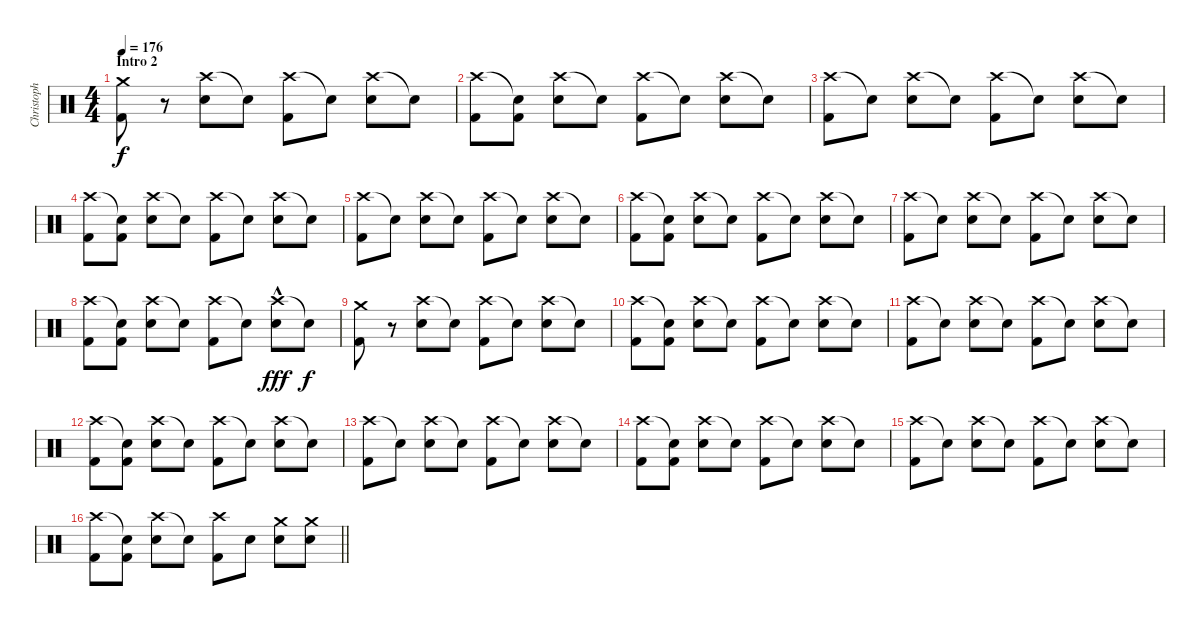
\track ("Christoph" "Christoph") {instrument percussion}
\staff {score}
\articulation defaults
\ts (4 4)
\section ("" "Intro 2")
\tempo 176
\clef neutral
\ks c
("Crash medium (hit)" "Kick (hit) 2").8{dy f} r.8 ("Crash high (hit)" "Snare (hit) 2").8 "Snare (hit)"{t}.8 ("Crash high (hit)" "Kick (hit) 2").8 "Snare (hit)"{t}.8 ("Crash high (hit)" "Snare (hit) 2").8 "Snare (hit)"{t}.8 |
("Crash high (hit)" "Kick (hit) 2").8 ("Snare (hit)"{t} "Kick (hit) 2").8 ("Crash high (hit)" "Snare (hit) 2").8 "Snare (hit)"{t}.8 ("Crash high (hit)" "Kick (hit) 2").8 "Snare (hit)"{t}.8 ("Crash high (hit)" "Snare (hit) 2").8 "Snare (hit)"{t}.8 |
("Crash high (hit)" "Kick (hit) 2").8 "Snare (hit)"{t}.8 ("Crash high (hit)" "Snare (hit) 2").8 "Snare (hit)"{t}.8 ("Crash high (hit)" "Kick (hit) 2").8 "Snare (hit)"{t}.8 ("Crash high (hit)" "Snare (hit) 2").8 "Snare (hit)"{t}.8 |
("Crash high (hit)" "Kick (hit) 2").8 ("Snare (hit)"{t} "Kick (hit) 2").8 ("Crash high (hit)" "Snare (hit) 2").8 "Snare (hit)"{t}.8 ("Crash high (hit)" "Kick (hit) 2").8 "Snare (hit)"{t}.8 ("Crash high (hit)" "Snare (hit) 2").8 "Snare (hit)"{t}.8 |
("Crash high (hit)" "Kick (hit) 2").8 "Snare (hit)"{t}.8 ("Crash high (hit)" "Snare (hit) 2").8 "Snare (hit)"{t}.8 ("Crash high (hit)" "Kick (hit) 2").8 "Snare (hit)"{t}.8 ("Crash high (hit)" "Snare (hit) 2").8 "Snare (hit)"{t}.8 |
("Crash high (hit)" "Kick (hit) 2").8 ("Snare (hit)"{t} "Kick (hit) 2").8 ("Crash high (hit)" "Snare (hit) 2").8 "Snare (hit)"{t}.8 ("Crash high (hit)" "Kick (hit) 2").8 "Snare (hit)"{t}.8 ("Crash high (hit)" "Snare (hit) 2").8 "Snare (hit)"{t}.8 |
("Crash high (hit)" "Kick (hit) 2").8 "Snare (hit)"{t}.8 ("Crash high (hit)" "Snare (hit) 2").8 "Snare (hit)"{t}.8 ("Crash high (hit)" "Kick (hit) 2").8 "Snare (hit)"{t}.8 ("Crash high (hit)" "Snare (hit) 2").8 "Snare (hit)"{t}.8 |
("Crash high (hit)" "Kick (hit) 2").8 ("Snare (hit)"{t} "Kick (hit) 2").8 ("Crash high (hit)" "Snare (hit) 2").8 "Snare (hit)"{t}.8 ("Crash high (hit)" "Kick (hit) 2").8 "Snare (hit)"{t}.8 ("Crash high (hit)"{hac} "Snare (hit) 2").8{dy fff} "Snare (hit)"{t}.8{dy f} |
("Crash medium (hit)" "Kick (hit) 2").8 r.8 ("Crash high (hit)" "Snare (hit) 2").8 "Snare (hit)"{t}.8 ("Crash high (hit)" "Kick (hit) 2").8 "Snare (hit)"{t}.8 ("Crash high (hit)" "Snare (hit) 2").8 "Snare (hit)"{t}.8 |
("Crash high (hit)" "Kick (hit) 2").8 ("Snare (hit)"{t} "Kick (hit) 2").8 ("Crash high (hit)" "Snare (hit) 2").8 "Snare (hit)"{t}.8 ("Crash high (hit)" "Kick (hit) 2").8 "Snare (hit)"{t}.8 ("Crash high (hit)" "Snare (hit) 2").8 "Snare (hit)"{t}.8 |
("Crash high (hit)" "Kick (hit) 2").8 "Snare (hit)"{t}.8 ("Crash high (hit)" "Snare (hit) 2").8 "Snare (hit)"{t}.8 ("Crash high (hit)" "Kick (hit) 2").8 "Snare (hit)"{t}.8 ("Crash high (hit)" "Snare (hit) 2").8 "Snare (hit)"{t}.8 |
("Crash high (hit)" "Kick (hit) 2").8 ("Snare (hit)"{t} "Kick (hit) 2").8 ("Crash high (hit)" "Snare (hit) 2").8 "Snare (hit)"{t}.8 ("Crash high (hit)" "Kick (hit) 2").8 "Snare (hit)"{t}.8 ("Crash high (hit)" "Snare (hit) 2").8 "Snare (hit)"{t}.8 |
("Crash high (hit)" "Kick (hit) 2").8 "Snare (hit)"{t}.8 ("Crash high (hit)" "Snare (hit) 2").8 "Snare (hit)"{t}.8 ("Crash high (hit)" "Kick (hit) 2").8 "Snare (hit)"{t}.8 ("Crash high (hit)" "Snare (hit) 2").8 "Snare (hit)"{t}.8 |
("Crash high (hit)" "Kick (hit) 2").8 ("Snare (hit)"{t} "Kick (hit) 2").8 ("Crash high (hit)" "Snare (hit) 2").8 "Snare (hit)"{t}.8 ("Crash high (hit)" "Kick (hit) 2").8 "Snare (hit)"{t}.8 ("Crash high (hit)" "Snare (hit) 2").8 "Snare (hit)"{t}.8 |
("Crash high (hit)" "Kick (hit) 2").8 "Snare (hit)"{t}.8 ("Crash high (hit)" "Snare (hit) 2").8 "Snare (hit)"{t}.8 ("Crash high (hit)" "Kick (hit) 2").8 "Snare (hit)"{t}.8 ("Crash high (hit)" "Snare (hit) 2").8 "Snare (hit)"{t}.8 |
\barLineRight lightlight
("Crash high (hit)" "Kick (hit) 2").8 ("Snare (hit)"{t} "Kick (hit) 2").8 ("Crash high (hit)" "Snare (hit) 2").8 "Snare (hit)"{t}.8 ("Crash high (hit)" "Kick (hit) 2").8 "Snare (hit) 2".8 ("Crash medium (hit)" "Snare (hit) 2").8 ("Crash medium (hit)" "Snare (hit) 2").8
